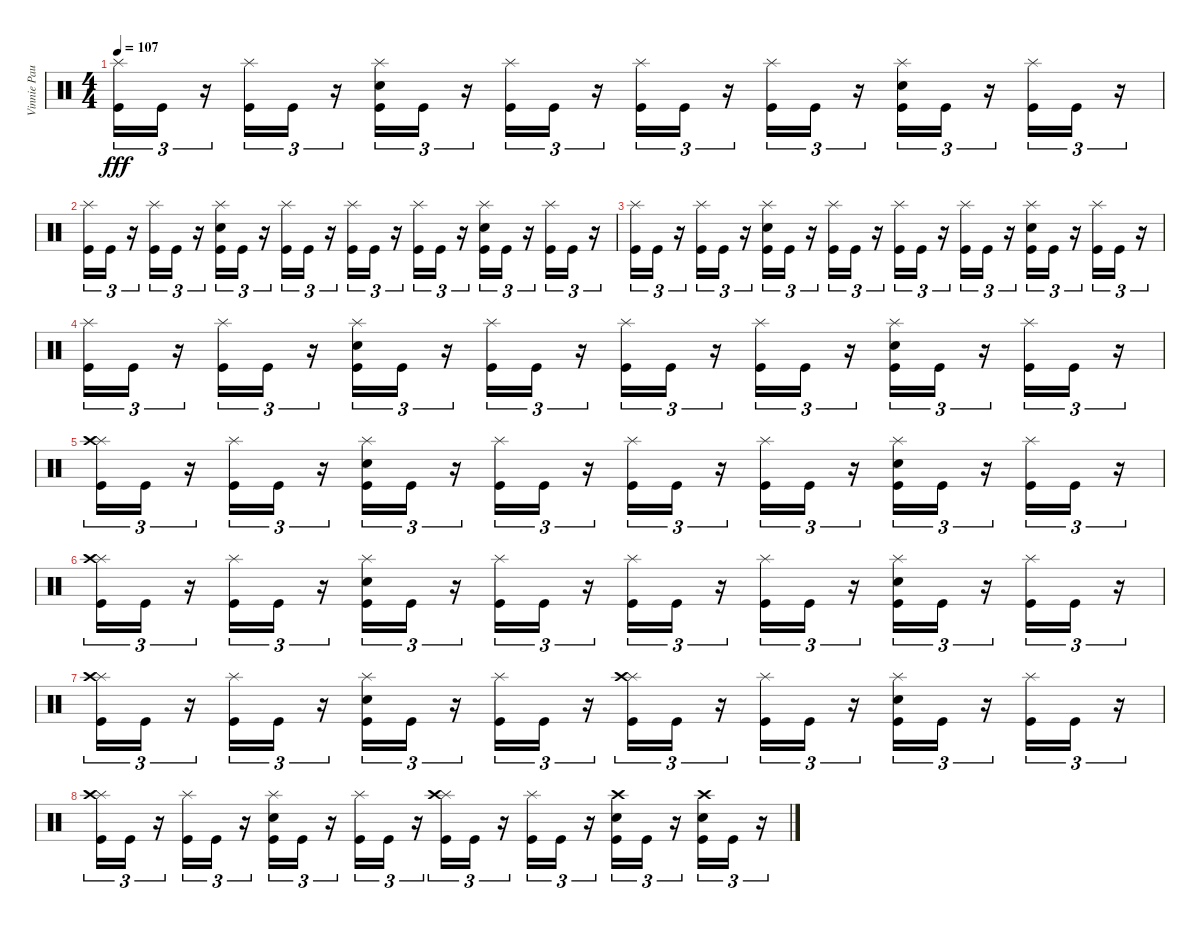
\track ("Vinnie Paul" "Vinnie Pau") {instrument percussion}
\staff {score}
\articulation defaults
\ts (4 4)
\tempo 107
\clef neutral
\ks c
("Splash (hit)" "Kick (hit)").16{tu (3 2) dy fff} "Kick (hit)".16{tu (3 2)} r.16{tu (3 2)} ("Splash (hit)" "Kick (hit)").16{tu (3 2)} "Kick (hit)".16{tu (3 2)} r.16{tu (3 2)} ("Splash (hit)" "Kick (hit)" "Electric Snare (hit)").16{tu (3 2)} "Kick (hit)".16{tu (3 2)} r.16{tu (3 2)} ("Splash (hit)" "Kick (hit)").16{tu (3 2)} "Kick (hit)".16{tu (3 2)} r.16{tu (3 2)} ("Splash (hit)" "Kick (hit)").16{tu (3 2)} "Kick (hit)".16{tu (3 2)} r.16{tu (3 2)} ("Splash (hit)" "Kick (hit)").16{tu (3 2)} "Kick (hit)".16{tu (3 2)} r.16{tu (3 2)} ("Splash (hit)" "Kick (hit)" "Electric Snare (hit)").16{tu (3 2)} "Kick (hit)".16{tu (3 2)} r.16{tu (3 2)} ("Splash (hit)" "Kick (hit)").16{tu (3 2)} "Kick (hit)".16{tu (3 2)} r.16{tu (3 2)} |
("Splash (hit)" "Kick (hit)").16{tu (3 2)} "Kick (hit)".16{tu (3 2)} r.16{tu (3 2)} ("Splash (hit)" "Kick (hit)").16{tu (3 2)} "Kick (hit)".16{tu (3 2)} r.16{tu (3 2)} ("Splash (hit)" "Kick (hit)" "Electric Snare (hit)").16{tu (3 2)} "Kick (hit)".16{tu (3 2)} r.16{tu (3 2)} ("Splash (hit)" "Kick (hit)").16{tu (3 2)} "Kick (hit)".16{tu (3 2)} r.16{tu (3 2)} ("Splash (hit)" "Kick (hit)").16{tu (3 2)} "Kick (hit)".16{tu (3 2)} r.16{tu (3 2)} ("Splash (hit)" "Kick (hit)").16{tu (3 2)} "Kick (hit)".16{tu (3 2)} r.16{tu (3 2)} ("Splash (hit)" "Kick (hit)" "Electric Snare (hit)").16{tu (3 2)} "Kick (hit)".16{tu (3 2)} r.16{tu (3 2)} ("Splash (hit)" "Kick (hit)").16{tu (3 2)} "Kick (hit)".16{tu (3 2)} r.16{tu (3 2)} |
("Splash (hit)" "Kick (hit)").16{tu (3 2)} "Kick (hit)".16{tu (3 2)} r.16{tu (3 2)} ("Splash (hit)" "Kick (hit)").16{tu (3 2)} "Kick (hit)".16{tu (3 2)} r.16{tu (3 2)} ("Splash (hit)" "Kick (hit)" "Electric Snare (hit)").16{tu (3 2)} "Kick (hit)".16{tu (3 2)} r.16{tu (3 2)} ("Splash (hit)" "Kick (hit)").16{tu (3 2)} "Kick (hit)".16{tu (3 2)} r.16{tu (3 2)} ("Splash (hit)" "Kick (hit)").16{tu (3 2)} "Kick (hit)".16{tu (3 2)} r.16{tu (3 2)} ("Splash (hit)" "Kick (hit)").16{tu (3 2)} "Kick (hit)".16{tu (3 2)} r.16{tu (3 2)} ("Splash (hit)" "Kick (hit)" "Electric Snare (hit)").16{tu (3 2)} "Kick (hit)".16{tu (3 2)} r.16{tu (3 2)} ("Splash (hit)" "Kick (hit)").16{tu (3 2)} "Kick (hit)".16{tu (3 2)} r.16{tu (3 2)} |
("Splash (hit)" "Kick (hit)").16{tu (3 2)} "Kick (hit)".16{tu (3 2)} r.16{tu (3 2)} ("Splash (hit)" "Kick (hit)").16{tu (3 2)} "Kick (hit)".16{tu (3 2)} r.16{tu (3 2)} ("Splash (hit)" "Kick (hit)" "Electric Snare (hit)").16{tu (3 2)} "Kick (hit)".16{tu (3 2)} r.16{tu (3 2)} ("Splash (hit)" "Kick (hit)").16{tu (3 2)} "Kick (hit)".16{tu (3 2)} r.16{tu (3 2)} ("Splash (hit)" "Kick (hit)").16{tu (3 2)} "Kick (hit)".16{tu (3 2)} r.16{tu (3 2)} ("Splash (hit)" "Kick (hit)").16{tu (3 2)} "Kick (hit)".16{tu (3 2)} r.16{tu (3 2)} ("Splash (hit)" "Kick (hit)" "Electric Snare (hit)").16{tu (3 2)} "Kick (hit)".16{tu (3 2)} r.16{tu (3 2)} ("Splash (hit)" "Kick (hit)").16{tu (3 2)} "Kick (hit)".16{tu (3 2)} r.16{tu (3 2)} |
("Splash (hit)" "Crash high (hit)" "Kick (hit)").16{tu (3 2)} "Kick (hit)".16{tu (3 2)} r.16{tu (3 2)} ("Splash (hit)" "Kick (hit)").16{tu (3 2)} "Kick (hit)".16{tu (3 2)} r.16{tu (3 2)} ("Splash (hit)" "Kick (hit)" "Electric Snare (hit)").16{tu (3 2)} "Kick (hit)".16{tu (3 2)} r.16{tu (3 2)} ("Splash (hit)" "Kick (hit)").16{tu (3 2)} "Kick (hit)".16{tu (3 2)} r.16{tu (3 2)} ("Splash (hit)" "Kick (hit)").16{tu (3 2)} "Kick (hit)".16{tu (3 2)} r.16{tu (3 2)} ("Splash (hit)" "Kick (hit)").16{tu (3 2)} "Kick (hit)".16{tu (3 2)} r.16{tu (3 2)} ("Splash (hit)" "Kick (hit)" "Electric Snare (hit)").16{tu (3 2)} "Kick (hit)".16{tu (3 2)} r.16{tu (3 2)} ("Splash (hit)" "Kick (hit)").16{tu (3 2)} "Kick (hit)".16{tu (3 2)} r.16{tu (3 2)} |
("Splash (hit)" "Crash high (hit)" "Kick (hit)").16{tu (3 2)} "Kick (hit)".16{tu (3 2)} r.16{tu (3 2)} ("Splash (hit)" "Kick (hit)").16{tu (3 2)} "Kick (hit)".16{tu (3 2)} r.16{tu (3 2)} ("Splash (hit)" "Kick (hit)" "Electric Snare (hit)").16{tu (3 2)} "Kick (hit)".16{tu (3 2)} r.16{tu (3 2)} ("Splash (hit)" "Kick (hit)").16{tu (3 2)} "Kick (hit)".16{tu (3 2)} r.16{tu (3 2)} ("Splash (hit)" "Kick (hit)").16{tu (3 2)} "Kick (hit)".16{tu (3 2)} r.16{tu (3 2)} ("Splash (hit)" "Kick (hit)").16{tu (3 2)} "Kick (hit)".16{tu (3 2)} r.16{tu (3 2)} ("Splash (hit)" "Kick (hit)" "Electric Snare (hit)").16{tu (3 2)} "Kick (hit)".16{tu (3 2)} r.16{tu (3 2)} ("Splash (hit)" "Kick (hit)").16{tu (3 2)} "Kick (hit)".16{tu (3 2)} r.16{tu (3 2)} |
("Splash (hit)" "Crash high (hit)" "Kick (hit)").16{tu (3 2)} "Kick (hit)".16{tu (3 2)} r.16{tu (3 2)} ("Splash (hit)" "Kick (hit)").16{tu (3 2)} "Kick (hit)".16{tu (3 2)} r.16{tu (3 2)} ("Splash (hit)" "Kick (hit)" "Electric Snare (hit)").16{tu (3 2)} "Kick (hit)".16{tu (3 2)} r.16{tu (3 2)} ("Splash (hit)" "Kick (hit)").16{tu (3 2)} "Kick (hit)".16{tu (3 2)} r.16{tu (3 2)} ("Splash (hit)" "Crash high (hit)" "Kick (hit)").16{tu (3 2)} "Kick (hit)".16{tu (3 2)} r.16{tu (3 2)} ("Splash (hit)" "Kick (hit)").16{tu (3 2)} "Kick (hit)".16{tu (3 2)} r.16{tu (3 2)} ("Splash (hit)" "Kick (hit)" "Electric Snare (hit)").16{tu (3 2)} "Kick (hit)".16{tu (3 2)} r.16{tu (3 2)} ("Splash (hit)" "Kick (hit)").16{tu (3 2)} "Kick (hit)".16{tu (3 2)} r.16{tu (3 2)} |
("Splash (hit)" "Crash high (hit)" "Kick (hit)").16{tu (3 2)} "Kick (hit)".16{tu (3 2)} r.16{tu (3 2)} ("Splash (hit)" "Kick (hit)").16{tu (3 2)} "Kick (hit)".16{tu (3 2)} r.16{tu (3 2)} ("Splash (hit)" "Kick (hit)" "Electric Snare (hit)").16{tu (3 2)} "Kick (hit)".16{tu (3 2)} r.16{tu (3 2)} ("Splash (hit)" "Kick (hit)").16{tu (3 2)} "Kick (hit)".16{tu (3 2)} r.16{tu (3 2)} ("Splash (hit)" "Crash high (hit)" "Kick (hit)").16{tu (3 2)} "Kick (hit)".16{tu (3 2)} r.16{tu (3 2)} ("Splash (hit)" "Kick (hit)").16{tu (3 2)} "Kick (hit)".16{tu (3 2)} r.16{tu (3 2)} ("Crash high (hit)" "Kick (hit)" "Electric Snare (hit)").16{tu (3 2)} "Kick (hit)".16{tu (3 2)} r.16{tu (3 2)} ("Crash high (hit)" "Kick (hit)" "Electric Snare (hit)").16{tu (3 2)} "Kick (hit)".16{tu (3 2)} r.16{tu (3 2)}
